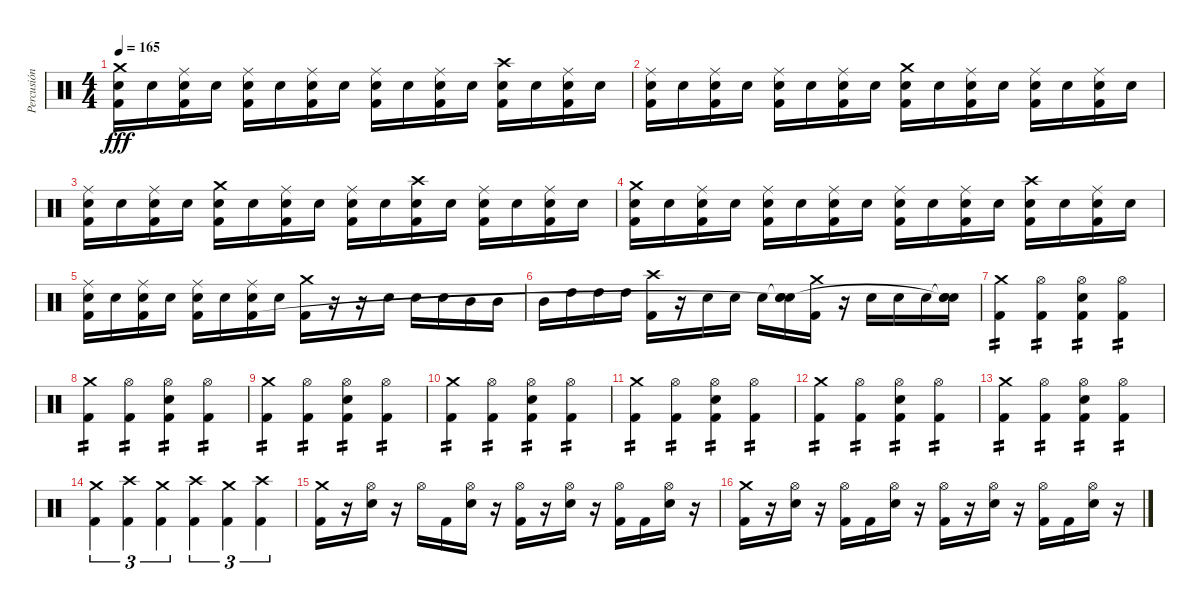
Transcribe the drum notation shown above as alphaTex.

\track ("Percusión" "Percusión") {instrument percussion}
\staff {score}
\articulation defaults
\ts (4 4)
\tempo 165
\clef neutral
\ks c
("Crash medium (hit)" "Electric Snare (hit)" "Kick (hit) 2").16{dy fff} "Electric Snare (hit)".16 ("Ride (middle)" "Electric Snare (hit)" "Kick (hit) 2").16 "Electric Snare (hit)".16 ("Ride (middle)" "Electric Snare (hit)" "Kick (hit) 2").16 "Electric Snare (hit)".16 ("Ride (middle)" "Electric Snare (hit)" "Kick (hit) 2").16 "Electric Snare (hit)".16 ("Ride (middle)" "Electric Snare (hit)" "Kick (hit) 2").16 "Electric Snare (hit)".16 ("Ride (middle)" "Electric Snare (hit)" "Kick (hit) 2").16 "Electric Snare (hit)".16 ("Crash high (hit)" "Electric Snare (hit)" "Kick (hit) 2").16 "Electric Snare (hit)".16 ("Ride (middle)" "Electric Snare (hit)" "Kick (hit) 2").16 "Electric Snare (hit)".16 |
("Ride (middle)" "Electric Snare (hit)" "Kick (hit) 2").16 "Electric Snare (hit)".16 ("Ride (middle)" "Electric Snare (hit)" "Kick (hit) 2").16 "Electric Snare (hit)".16 ("Ride (middle)" "Electric Snare (hit)" "Kick (hit) 2").16 "Electric Snare (hit)".16 ("Ride (middle)" "Electric Snare (hit)" "Kick (hit) 2").16 "Electric Snare (hit)".16 ("Crash medium (hit)" "Electric Snare (hit)" "Kick (hit) 2").16 "Electric Snare (hit)".16 ("Ride (middle)" "Electric Snare (hit)" "Kick (hit) 2").16 "Electric Snare (hit)".16 ("Ride (middle)" "Electric Snare (hit)" "Kick (hit) 2").16 "Electric Snare (hit)".16 ("Ride (middle)" "Electric Snare (hit)" "Kick (hit) 2").16 "Electric Snare (hit)".16 |
("Ride (middle)" "Electric Snare (hit)" "Kick (hit) 2").16 "Electric Snare (hit)".16 ("Ride (middle)" "Electric Snare (hit)" "Kick (hit) 2").16 "Electric Snare (hit)".16 ("Crash medium (hit)" "Electric Snare (hit)" "Kick (hit) 2").16 "Electric Snare (hit)".16 ("Ride (middle)" "Electric Snare (hit)" "Kick (hit) 2").16 "Electric Snare (hit)".16 ("Ride (middle)" "Electric Snare (hit)" "Kick (hit) 2").16 "Electric Snare (hit)".16 ("Crash high (hit)" "Electric Snare (hit)" "Kick (hit) 2").16 "Electric Snare (hit)".16 ("Ride (middle)" "Electric Snare (hit)" "Kick (hit) 2").16 "Electric Snare (hit)".16 ("Ride (middle)" "Electric Snare (hit)" "Kick (hit) 2").16 "Electric Snare (hit)".16 |
("Crash medium (hit)" "Electric Snare (hit)" "Kick (hit) 2").16 "Electric Snare (hit)".16 ("Ride (middle)" "Electric Snare (hit)" "Kick (hit) 2").16 "Electric Snare (hit)".16 ("Ride (middle)" "Electric Snare (hit)" "Kick (hit) 2").16 "Electric Snare (hit)".16 ("Ride (middle)" "Electric Snare (hit)" "Kick (hit) 2").16 "Electric Snare (hit)".16 ("Ride (middle)" "Electric Snare (hit)" "Kick (hit) 2").16 "Electric Snare (hit)".16 ("Ride (middle)" "Electric Snare (hit)" "Kick (hit) 2").16 "Electric Snare (hit)".16 ("Crash high (hit)" "Electric Snare (hit)" "Kick (hit) 2").16 "Electric Snare (hit)".16 ("Ride (middle)" "Electric Snare (hit)" "Kick (hit) 2").16 "Electric Snare (hit)".16 |
("Ride (middle)" "Electric Snare (hit)" "Kick (hit) 2").16 "Electric Snare (hit)".16 ("Ride (middle)" "Electric Snare (hit)" "Kick (hit) 2").16 "Electric Snare (hit)".16 ("Ride (middle)" "Electric Snare (hit)" "Kick (hit) 2").16 "Electric Snare (hit)".16 ("Ride (middle)" "Electric Snare (hit)" "Kick (hit) 2").16 "Electric Snare (hit)".16 ("Crash medium (hit)" "Kick (hit) 2").16 r.16 r.16 "Electric Snare (hit)".16 "Electric Snare (hit)".16 "Electric Snare (hit)".16 "Mid Tom (hit)".16 "Mid Tom (hit)".16 |
"Mid Tom (hit)".16 "High Tom (hit)".16 "High Tom (hit)".16 "High Tom (hit)".16 ("Crash high (hit)" "Kick (hit) 2").16 r.16 "Electric Snare (hit)".16 "Electric Snare (hit)".16 "Electric Snare (hit)".16 ("Snare (hit)"{t} "Electric Snare (hit)" "Snare (hit)"{t}).16 ("Crash medium (hit)" "Kick (hit) 2").16 r.16 "Electric Snare (hit)".16 "Electric Snare (hit)".16 "Electric Snare (hit)".16 ("Snare (hit)"{t} "Electric Snare (hit)" "Snare (hit)"{t}).16 |
("Crash medium (hit)" "Kick (hit) 2").4{tp 2} ("Hi-Hat (open)" "Kick (hit) 2").4{tp 2} ("Hi-Hat (open)" "Electric Snare (hit)" "Kick (hit) 2").4{tp 2} ("Hi-Hat (open)" "Kick (hit) 2").4{tp 2} |
("Crash medium (hit)" "Kick (hit) 2").4{tp 2} ("Hi-Hat (open)" "Kick (hit) 2").4{tp 2} ("Hi-Hat (open)" "Electric Snare (hit)" "Kick (hit) 2").4{tp 2} ("Hi-Hat (open)" "Kick (hit) 2").4{tp 2} |
("Crash medium (hit)" "Kick (hit) 2").4{tp 2} ("Hi-Hat (open)" "Kick (hit) 2").4{tp 2} ("Hi-Hat (open)" "Electric Snare (hit)" "Kick (hit) 2").4{tp 2} ("Hi-Hat (open)" "Kick (hit) 2").4{tp 2} |
("Crash medium (hit)" "Kick (hit) 2").4{tp 2} ("Hi-Hat (open)" "Kick (hit) 2").4{tp 2} ("Hi-Hat (open)" "Electric Snare (hit)" "Kick (hit) 2").4{tp 2} ("Hi-Hat (open)" "Kick (hit) 2").4{tp 2} |
("Crash medium (hit)" "Kick (hit) 2").4{tp 2} ("Hi-Hat (open)" "Kick (hit) 2").4{tp 2} ("Hi-Hat (open)" "Electric Snare (hit)" "Kick (hit) 2").4{tp 2} ("Hi-Hat (open)" "Kick (hit) 2").4{tp 2} |
("Crash medium (hit)" "Kick (hit) 2").4{tp 2} ("Hi-Hat (open)" "Kick (hit) 2").4{tp 2} ("Hi-Hat (open)" "Electric Snare (hit)" "Kick (hit) 2").4{tp 2} ("Hi-Hat (open)" "Kick (hit) 2").4{tp 2} |
("Crash medium (hit)" "Kick (hit) 2").4{tp 2} ("Hi-Hat (open)" "Kick (hit) 2").4{tp 2} ("Hi-Hat (open)" "Electric Snare (hit)" "Kick (hit) 2").4{tp 2} ("Hi-Hat (open)" "Kick (hit) 2").4{tp 2} |
("Crash medium (hit)" "Kick (hit) 2").4{tu (3 2)} ("Crash high (hit)" "Kick (hit) 2").4{tu (3 2)} ("Crash medium (hit)" "Kick (hit) 2").4{tu (3 2)} ("Crash high (hit)" "Kick (hit) 2").4{tu (3 2)} ("Crash medium (hit)" "Kick (hit) 2").4{tu (3 2)} ("Crash high (hit)" "Kick (hit) 2").4{tu (3 2)} |
("Crash medium (hit)" "Kick (hit) 2").16 r.16 ("Hi-Hat (open)" "Electric Snare (hit)").16 r.16 "Hi-Hat (open)".16 "Kick (hit) 2".16 ("Hi-Hat (open)" "Electric Snare (hit)").16 r.16 ("Hi-Hat (open)" "Kick (hit) 2").16 r.16 ("Hi-Hat (open)" "Electric Snare (hit)").16 r.16 ("Hi-Hat (open)" "Kick (hit) 2").16 "Kick (hit) 2".16 ("Hi-Hat (open)" "Electric Snare (hit)").16 r.16 |
("Crash medium (hit)" "Kick (hit) 2").16 r.16 ("Hi-Hat (open)" "Electric Snare (hit)").16 r.16 ("Hi-Hat (open)" "Kick (hit) 2").16 "Kick (hit) 2".16 ("Hi-Hat (open)" "Electric Snare (hit)").16 r.16 ("Hi-Hat (open)" "Kick (hit) 2").16 r.16 ("Hi-Hat (open)" "Electric Snare (hit)").16 r.16 ("Hi-Hat (open)" "Kick (hit) 2").16 "Kick (hit) 2".16 ("Hi-Hat (open)" "Electric Snare (hit)").16 r.16
